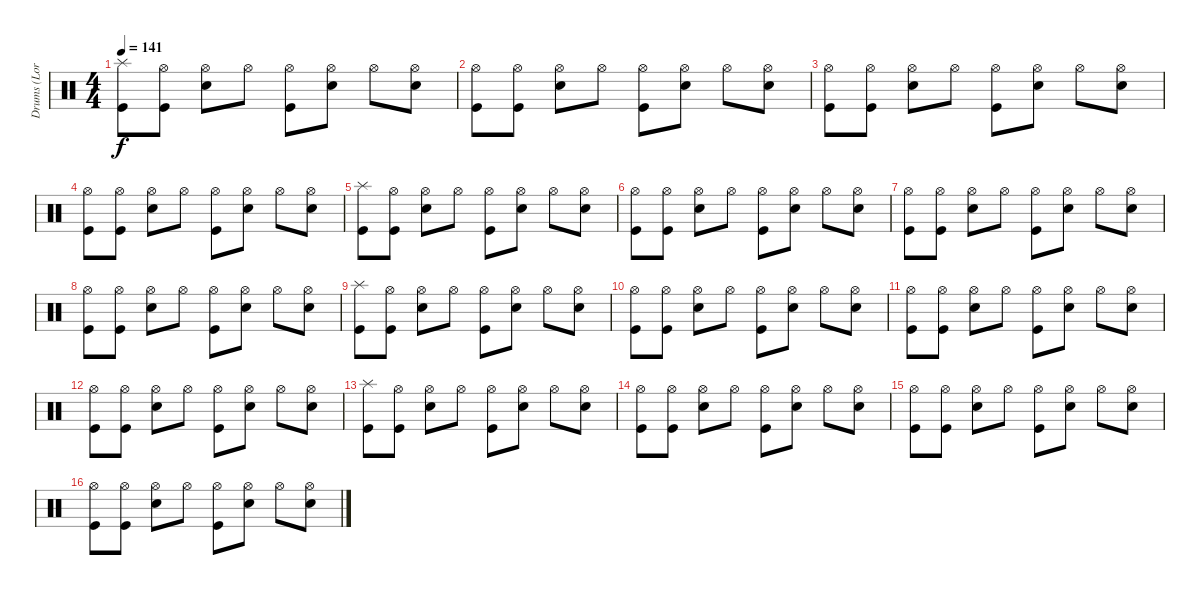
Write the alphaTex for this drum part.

\track ("Drums (Lora)" "Drums (Lor") {instrument percussion}
\staff {score}
\articulation defaults
\ts (4 4)
\tempo 141
\clef neutral
\ks c
("Splash (hit)" "Kick (hit)").8{dy f} ("Hi-Hat (open)" "Kick (hit)").8 ("Hi-Hat (open)" "Snare (hit) 2").8 "Hi-Hat (open)".8 ("Hi-Hat (open)" "Kick (hit)").8 ("Hi-Hat (open)" "Snare (hit) 2").8 "Hi-Hat (open)".8 ("Hi-Hat (open)" "Snare (hit) 2").8 |
("Hi-Hat (open)" "Kick (hit)").8 ("Hi-Hat (open)" "Kick (hit)").8 ("Hi-Hat (open)" "Snare (hit) 2").8 "Hi-Hat (open)".8 ("Hi-Hat (open)" "Kick (hit)").8 ("Hi-Hat (open)" "Snare (hit) 2").8 "Hi-Hat (open)".8 ("Hi-Hat (open)" "Snare (hit) 2").8 |
("Hi-Hat (open)" "Kick (hit)").8 ("Hi-Hat (open)" "Kick (hit)").8 ("Hi-Hat (open)" "Snare (hit) 2").8 "Hi-Hat (open)".8 ("Hi-Hat (open)" "Kick (hit)").8 ("Hi-Hat (open)" "Snare (hit) 2").8 "Hi-Hat (open)".8 ("Hi-Hat (open)" "Snare (hit) 2").8 |
("Hi-Hat (open)" "Kick (hit)").8 ("Hi-Hat (open)" "Kick (hit)").8 ("Hi-Hat (open)" "Snare (hit) 2").8 "Hi-Hat (open)".8 ("Hi-Hat (open)" "Kick (hit)").8 ("Hi-Hat (open)" "Snare (hit) 2").8 "Hi-Hat (open)".8 ("Hi-Hat (open)" "Snare (hit) 2").8 |
("Splash (hit)" "Kick (hit)").8 ("Hi-Hat (open)" "Kick (hit)").8 ("Hi-Hat (open)" "Snare (hit) 2").8 "Hi-Hat (open)".8 ("Hi-Hat (open)" "Kick (hit)").8 ("Hi-Hat (open)" "Snare (hit) 2").8 "Hi-Hat (open)".8 ("Hi-Hat (open)" "Snare (hit) 2").8 |
("Hi-Hat (open)" "Kick (hit)").8 ("Hi-Hat (open)" "Kick (hit)").8 ("Hi-Hat (open)" "Snare (hit) 2").8 "Hi-Hat (open)".8 ("Hi-Hat (open)" "Kick (hit)").8 ("Hi-Hat (open)" "Snare (hit) 2").8 "Hi-Hat (open)".8 ("Hi-Hat (open)" "Snare (hit) 2").8 |
("Hi-Hat (open)" "Kick (hit)").8 ("Hi-Hat (open)" "Kick (hit)").8 ("Hi-Hat (open)" "Snare (hit) 2").8 "Hi-Hat (open)".8 ("Hi-Hat (open)" "Kick (hit)").8 ("Hi-Hat (open)" "Snare (hit) 2").8 "Hi-Hat (open)".8 ("Hi-Hat (open)" "Snare (hit) 2").8 |
("Hi-Hat (open)" "Kick (hit)").8 ("Hi-Hat (open)" "Kick (hit)").8 ("Hi-Hat (open)" "Snare (hit) 2").8 "Hi-Hat (open)".8 ("Hi-Hat (open)" "Kick (hit)").8 ("Hi-Hat (open)" "Snare (hit) 2").8 "Hi-Hat (open)".8 ("Hi-Hat (open)" "Snare (hit) 2").8 |
("Splash (hit)" "Kick (hit)").8 ("Hi-Hat (open)" "Kick (hit)").8 ("Hi-Hat (open)" "Snare (hit) 2").8 "Hi-Hat (open)".8 ("Hi-Hat (open)" "Kick (hit)").8 ("Hi-Hat (open)" "Snare (hit) 2").8 "Hi-Hat (open)".8 ("Hi-Hat (open)" "Snare (hit) 2").8 |
("Hi-Hat (open)" "Kick (hit)").8 ("Hi-Hat (open)" "Kick (hit)").8 ("Hi-Hat (open)" "Snare (hit) 2").8 "Hi-Hat (open)".8 ("Hi-Hat (open)" "Kick (hit)").8 ("Hi-Hat (open)" "Snare (hit) 2").8 "Hi-Hat (open)".8 ("Hi-Hat (open)" "Snare (hit) 2").8 |
("Hi-Hat (open)" "Kick (hit)").8 ("Hi-Hat (open)" "Kick (hit)").8 ("Hi-Hat (open)" "Snare (hit) 2").8 "Hi-Hat (open)".8 ("Hi-Hat (open)" "Kick (hit)").8 ("Hi-Hat (open)" "Snare (hit) 2").8 "Hi-Hat (open)".8 ("Hi-Hat (open)" "Snare (hit) 2").8 |
("Hi-Hat (open)" "Kick (hit)").8 ("Hi-Hat (open)" "Kick (hit)").8 ("Hi-Hat (open)" "Snare (hit) 2").8 "Hi-Hat (open)".8 ("Hi-Hat (open)" "Kick (hit)").8 ("Hi-Hat (open)" "Snare (hit) 2").8 "Hi-Hat (open)".8 ("Hi-Hat (open)" "Snare (hit) 2").8 |
("Splash (hit)" "Kick (hit)").8 ("Hi-Hat (open)" "Kick (hit)").8 ("Hi-Hat (open)" "Snare (hit) 2").8 "Hi-Hat (open)".8 ("Hi-Hat (open)" "Kick (hit)").8 ("Hi-Hat (open)" "Snare (hit) 2").8 "Hi-Hat (open)".8 ("Hi-Hat (open)" "Snare (hit) 2").8 |
("Hi-Hat (open)" "Kick (hit)").8 ("Hi-Hat (open)" "Kick (hit)").8 ("Hi-Hat (open)" "Snare (hit) 2").8 "Hi-Hat (open)".8 ("Hi-Hat (open)" "Kick (hit)").8 ("Hi-Hat (open)" "Snare (hit) 2").8 "Hi-Hat (open)".8 ("Hi-Hat (open)" "Snare (hit) 2").8 |
("Hi-Hat (open)" "Kick (hit)").8 ("Hi-Hat (open)" "Kick (hit)").8 ("Hi-Hat (open)" "Snare (hit) 2").8 "Hi-Hat (open)".8 ("Hi-Hat (open)" "Kick (hit)").8 ("Hi-Hat (open)" "Snare (hit) 2").8 "Hi-Hat (open)".8 ("Hi-Hat (open)" "Snare (hit) 2").8 |
("Hi-Hat (open)" "Kick (hit)").8 ("Hi-Hat (open)" "Kick (hit)").8 ("Hi-Hat (open)" "Snare (hit) 2").8 "Hi-Hat (open)".8 ("Hi-Hat (open)" "Kick (hit)").8 ("Hi-Hat (open)" "Snare (hit) 2").8 "Hi-Hat (open)".8 ("Hi-Hat (open)" "Snare (hit) 2").8
